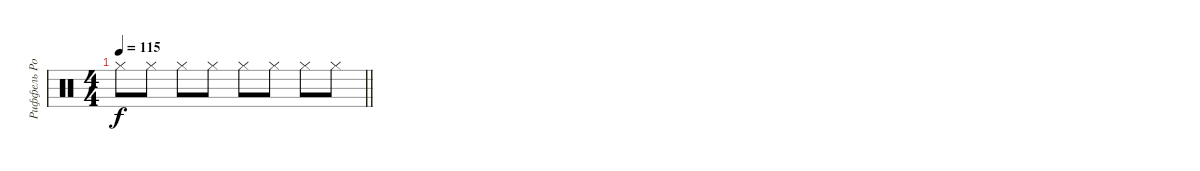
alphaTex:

\track ("Риффель Роман (хэты)" "Риффель Ро") {instrument percussion}
\staff {score}
\articulation defaults
\ts (4 4)
\tempo 115
\clef neutral
\barLineRight lightlight
\ks c "Hi-Hat (closed)".8{dy f} "Hi-Hat (closed)".8 "Hi-Hat (closed)".8 "Hi-Hat (closed)".8 "Hi-Hat (closed)".8 "Hi-Hat (closed)".8 "Hi-Hat (closed)".8 "Hi-Hat (closed)".8
